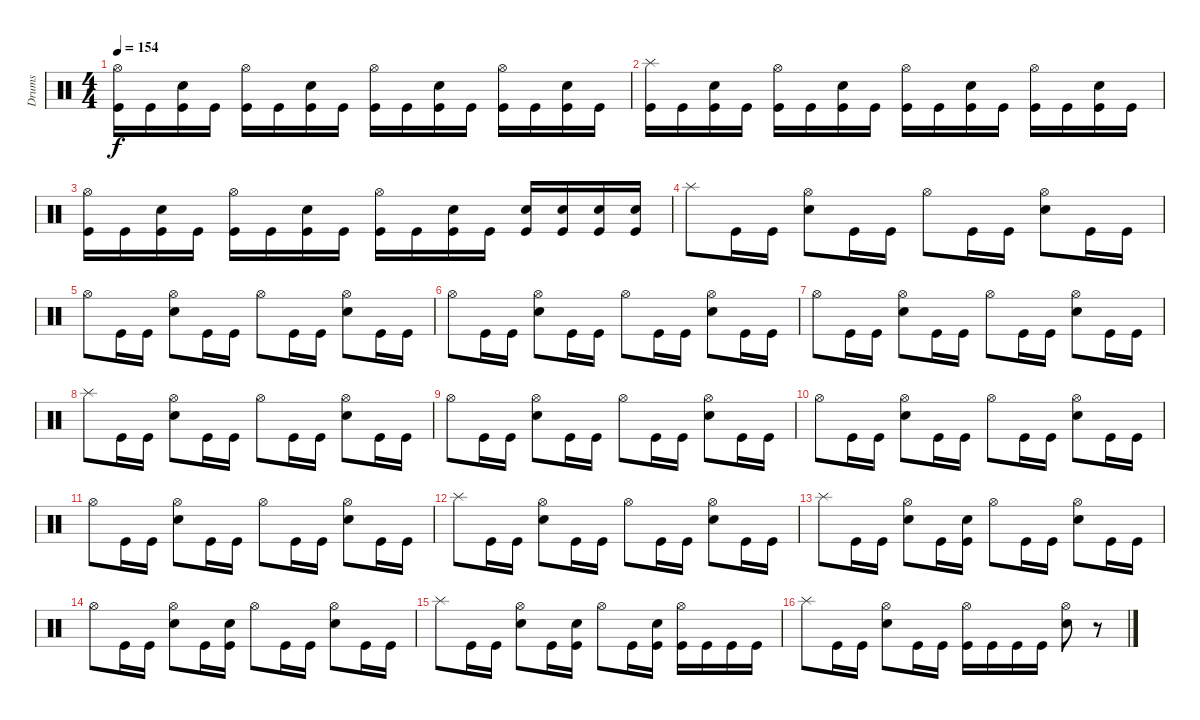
\track ("Drums" "Drums") {instrument percussion}
\staff {score}
\articulation defaults
\ts (4 4)
\tempo 154
\clef neutral
\ks c
("Hi-Hat (open)" "Kick (hit)").16{dy f} "Kick (hit)".16 ("Snare (hit) 2" "Kick (hit)").16 "Kick (hit)".16 ("Hi-Hat (open)" "Kick (hit)").16 "Kick (hit)".16 ("Snare (hit) 2" "Kick (hit)").16 "Kick (hit)".16 ("Hi-Hat (open)" "Kick (hit)").16 "Kick (hit)".16 ("Snare (hit) 2" "Kick (hit)").16 "Kick (hit)".16 ("Hi-Hat (open)" "Kick (hit)").16 "Kick (hit)".16 ("Snare (hit) 2" "Kick (hit)").16 "Kick (hit)".16 |
("Splash (hit)" "Kick (hit)").16 "Kick (hit)".16 ("Snare (hit) 2" "Kick (hit)").16 "Kick (hit)".16 ("Hi-Hat (open)" "Kick (hit)").16 "Kick (hit)".16 ("Snare (hit) 2" "Kick (hit)").16 "Kick (hit)".16 ("Hi-Hat (open)" "Kick (hit)").16 "Kick (hit)".16 ("Snare (hit) 2" "Kick (hit)").16 "Kick (hit)".16 ("Hi-Hat (open)" "Kick (hit)").16 "Kick (hit)".16 ("Snare (hit) 2" "Kick (hit)").16 "Kick (hit)".16 |
("Hi-Hat (open)" "Kick (hit)").16 "Kick (hit)".16 ("Snare (hit) 2" "Kick (hit)").16 "Kick (hit)".16 ("Hi-Hat (open)" "Kick (hit)").16 "Kick (hit)".16 ("Snare (hit) 2" "Kick (hit)").16 "Kick (hit)".16 ("Hi-Hat (open)" "Kick (hit)").16 "Kick (hit)".16 ("Snare (hit) 2" "Kick (hit)").16 "Kick (hit)".16 ("Snare (hit) 2" "Kick (hit)").16 ("Snare (hit) 2" "Kick (hit)").16 ("Snare (hit) 2" "Kick (hit)").16 ("Snare (hit) 2" "Kick (hit)").16 |
"Splash (hit)".8 "Kick (hit)".16 "Kick (hit)".16 ("Hi-Hat (open)" "Snare (hit) 2").8 "Kick (hit)".16 "Kick (hit)".16 "Hi-Hat (open)".8 "Kick (hit)".16 "Kick (hit)".16 ("Hi-Hat (open)" "Snare (hit) 2").8 "Kick (hit)".16 "Kick (hit)".16 |
"Hi-Hat (open)".8 "Kick (hit)".16 "Kick (hit)".16 ("Hi-Hat (open)" "Snare (hit) 2").8 "Kick (hit)".16 "Kick (hit)".16 "Hi-Hat (open)".8 "Kick (hit)".16 "Kick (hit)".16 ("Hi-Hat (open)" "Snare (hit) 2").8 "Kick (hit)".16 "Kick (hit)".16 |
"Hi-Hat (open)".8 "Kick (hit)".16 "Kick (hit)".16 ("Hi-Hat (open)" "Snare (hit) 2").8 "Kick (hit)".16 "Kick (hit)".16 "Hi-Hat (open)".8 "Kick (hit)".16 "Kick (hit)".16 ("Hi-Hat (open)" "Snare (hit) 2").8 "Kick (hit)".16 "Kick (hit)".16 |
"Hi-Hat (open)".8 "Kick (hit)".16 "Kick (hit)".16 ("Hi-Hat (open)" "Snare (hit) 2").8 "Kick (hit)".16 "Kick (hit)".16 "Hi-Hat (open)".8 "Kick (hit)".16 "Kick (hit)".16 ("Hi-Hat (open)" "Snare (hit) 2").8 "Kick (hit)".16 "Kick (hit)".16 |
"Splash (hit)".8 "Kick (hit)".16 "Kick (hit)".16 ("Hi-Hat (open)" "Snare (hit) 2").8 "Kick (hit)".16 "Kick (hit)".16 "Hi-Hat (open)".8 "Kick (hit)".16 "Kick (hit)".16 ("Hi-Hat (open)" "Snare (hit) 2").8 "Kick (hit)".16 "Kick (hit)".16 |
"Hi-Hat (open)".8 "Kick (hit)".16 "Kick (hit)".16 ("Hi-Hat (open)" "Snare (hit) 2").8 "Kick (hit)".16 "Kick (hit)".16 "Hi-Hat (open)".8 "Kick (hit)".16 "Kick (hit)".16 ("Hi-Hat (open)" "Snare (hit) 2").8 "Kick (hit)".16 "Kick (hit)".16 |
"Hi-Hat (open)".8 "Kick (hit)".16 "Kick (hit)".16 ("Hi-Hat (open)" "Snare (hit) 2").8 "Kick (hit)".16 "Kick (hit)".16 "Hi-Hat (open)".8 "Kick (hit)".16 "Kick (hit)".16 ("Hi-Hat (open)" "Snare (hit) 2").8 "Kick (hit)".16 "Kick (hit)".16 |
"Hi-Hat (open)".8 "Kick (hit)".16 "Kick (hit)".16 ("Hi-Hat (open)" "Snare (hit) 2").8 "Kick (hit)".16 "Kick (hit)".16 "Hi-Hat (open)".8 "Kick (hit)".16 "Kick (hit)".16 ("Hi-Hat (open)" "Snare (hit) 2").8 "Kick (hit)".16 "Kick (hit)".16 |
"Splash (hit)".8 "Kick (hit)".16 "Kick (hit)".16 ("Hi-Hat (open)" "Snare (hit) 2").8 "Kick (hit)".16 "Kick (hit)".16 "Hi-Hat (open)".8 "Kick (hit)".16 "Kick (hit)".16 ("Hi-Hat (open)" "Snare (hit) 2").8 "Kick (hit)".16 "Kick (hit)".16 |
"Splash (hit)".8 "Kick (hit)".16 "Kick (hit)".16 ("Hi-Hat (open)" "Snare (hit) 2").8 "Kick (hit)".16 ("Snare (hit) 2" "Kick (hit)").16 "Hi-Hat (open)".8 "Kick (hit)".16 "Kick (hit)".16 ("Hi-Hat (open)" "Snare (hit) 2").8 "Kick (hit)".16 "Kick (hit)".16 |
"Hi-Hat (open)".8 "Kick (hit)".16 "Kick (hit)".16 ("Hi-Hat (open)" "Snare (hit) 2").8 "Kick (hit)".16 ("Snare (hit) 2" "Kick (hit)").16 "Hi-Hat (open)".8 "Kick (hit)".16 "Kick (hit)".16 ("Hi-Hat (open)" "Snare (hit) 2").8 "Kick (hit)".16 "Kick (hit)".16 |
"Splash (hit)".8 "Kick (hit)".16 "Kick (hit)".16 ("Hi-Hat (open)" "Snare (hit) 2").8 "Kick (hit)".16 ("Snare (hit) 2" "Kick (hit)").16 "Hi-Hat (open)".8 "Kick (hit)".16 ("Snare (hit) 2" "Kick (hit)").16 ("Hi-Hat (open)" "Kick (hit)").16 "Kick (hit)".16 "Kick (hit)".16 "Kick (hit)".16 |
"Splash (hit)".8 "Kick (hit)".16 "Kick (hit)".16 ("Hi-Hat (open)" "Snare (hit) 2").8 "Kick (hit)".16 "Kick (hit)".16 ("Hi-Hat (open)" "Kick (hit)").16 "Kick (hit)".16 "Kick (hit)".16 "Kick (hit)".16 ("Hi-Hat (open)" "Snare (hit) 2").8 r.8
